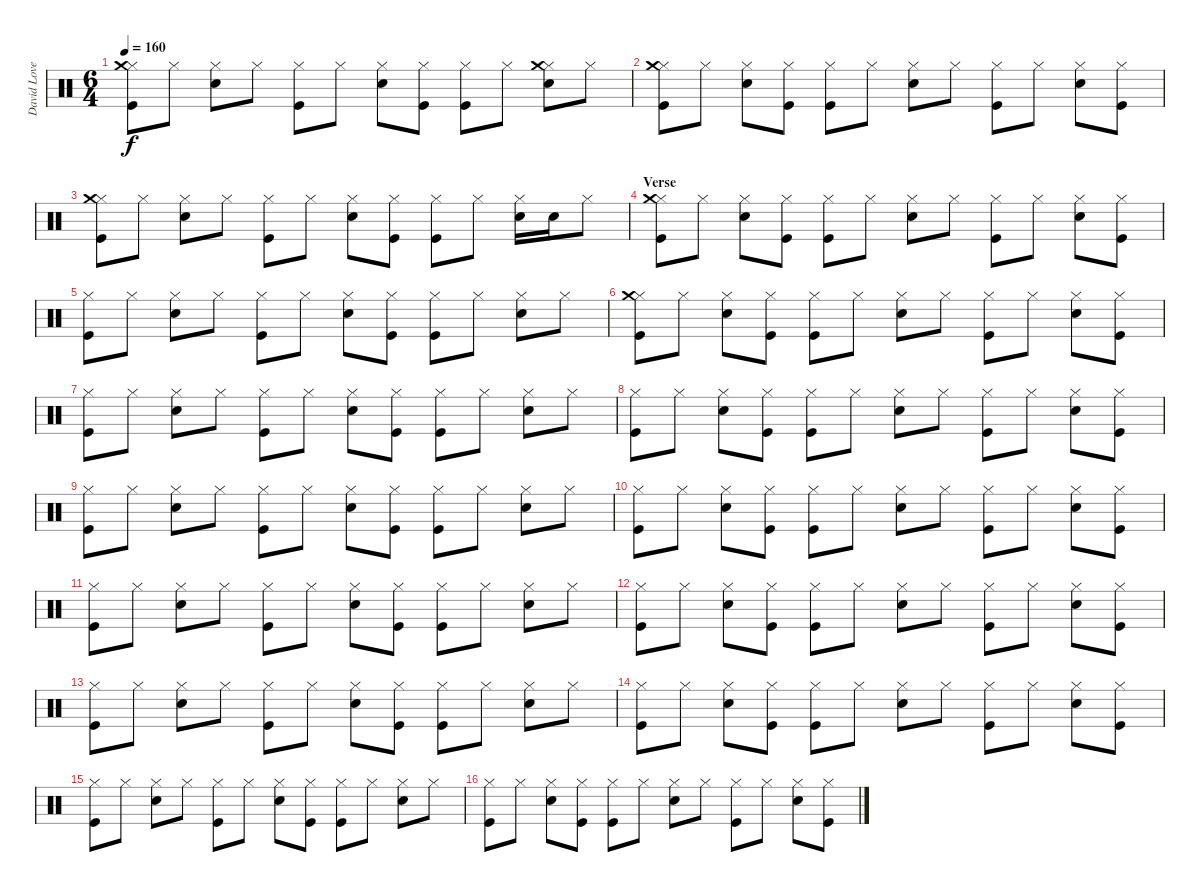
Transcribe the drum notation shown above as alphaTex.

\track ("David Lovering" "David Love") {instrument percussion}
\staff {score}
\articulation defaults
\ts (6 4)
\tempo 160
\clef neutral
\ks c
("Hi-Hat (closed)" "Crash medium (hit)" "Kick (hit)").8{dy f} "Hi-Hat (closed)".8 ("Hi-Hat (closed)" "Snare (hit) 2").8 "Hi-Hat (closed)".8 ("Hi-Hat (closed)" "Kick (hit)").8 "Hi-Hat (closed)".8 ("Hi-Hat (closed)" "Snare (hit) 2").8 ("Hi-Hat (closed)" "Kick (hit)").8 ("Hi-Hat (closed)" "Kick (hit)").8 "Hi-Hat (closed)".8 ("Hi-Hat (closed)" "Crash medium (hit)" "Snare (hit) 2").8 "Hi-Hat (closed)".8 |
("Hi-Hat (closed)" "Crash medium (hit)" "Kick (hit)").8 "Hi-Hat (closed)".8 ("Hi-Hat (closed)" "Snare (hit) 2").8 ("Hi-Hat (closed)" "Kick (hit)").8 ("Hi-Hat (closed)" "Kick (hit)").8 "Hi-Hat (closed)".8 ("Hi-Hat (closed)" "Snare (hit) 2").8 "Hi-Hat (closed)".8 ("Hi-Hat (closed)" "Kick (hit)").8 "Hi-Hat (closed)".8 ("Hi-Hat (closed)" "Snare (hit) 2").8 ("Hi-Hat (closed)" "Kick (hit)").8 |
("Hi-Hat (closed)" "Crash medium (hit)" "Kick (hit)").8 "Hi-Hat (closed)".8 ("Hi-Hat (closed)" "Snare (hit) 2").8 "Hi-Hat (closed)".8 ("Hi-Hat (closed)" "Kick (hit)").8 "Hi-Hat (closed)".8 ("Hi-Hat (closed)" "Snare (hit) 2").8 ("Hi-Hat (closed)" "Kick (hit)").8 ("Hi-Hat (closed)" "Kick (hit)").8 "Hi-Hat (closed)".8 ("Hi-Hat (closed)" "Snare (hit) 2").16 "Snare (hit) 2".16 "Hi-Hat (closed)".8 |
\section ("" "Verse")
("Hi-Hat (closed)" "Crash medium (hit)" "Kick (hit)").8 "Hi-Hat (closed)".8 ("Hi-Hat (closed)" "Snare (hit) 2").8 ("Hi-Hat (closed)" "Kick (hit)").8 ("Hi-Hat (closed)" "Kick (hit)").8 "Hi-Hat (closed)".8 ("Hi-Hat (closed)" "Snare (hit) 2").8 "Hi-Hat (closed)".8 ("Hi-Hat (closed)" "Kick (hit)").8 "Hi-Hat (closed)".8 ("Hi-Hat (closed)" "Snare (hit) 2").8 ("Hi-Hat (closed)" "Kick (hit)").8 |
("Hi-Hat (closed)" "Kick (hit)").8 "Hi-Hat (closed)".8 ("Hi-Hat (closed)" "Snare (hit) 2").8 "Hi-Hat (closed)".8 ("Hi-Hat (closed)" "Kick (hit)").8 "Hi-Hat (closed)".8 ("Hi-Hat (closed)" "Snare (hit) 2").8 ("Hi-Hat (closed)" "Kick (hit)").8 ("Hi-Hat (closed)" "Kick (hit)").8 "Hi-Hat (closed)".8 ("Hi-Hat (closed)" "Snare (hit) 2").8 "Hi-Hat (closed)".8 |
("Hi-Hat (closed)" "Crash medium (hit)" "Kick (hit)").8 "Hi-Hat (closed)".8 ("Hi-Hat (closed)" "Snare (hit) 2").8 ("Hi-Hat (closed)" "Kick (hit)").8 ("Hi-Hat (closed)" "Kick (hit)").8 "Hi-Hat (closed)".8 ("Hi-Hat (closed)" "Snare (hit) 2").8 "Hi-Hat (closed)".8 ("Hi-Hat (closed)" "Kick (hit)").8 "Hi-Hat (closed)".8 ("Hi-Hat (closed)" "Snare (hit) 2").8 ("Hi-Hat (closed)" "Kick (hit)").8 |
("Hi-Hat (closed)" "Kick (hit)").8 "Hi-Hat (closed)".8 ("Hi-Hat (closed)" "Snare (hit) 2").8 "Hi-Hat (closed)".8 ("Hi-Hat (closed)" "Kick (hit)").8 "Hi-Hat (closed)".8 ("Hi-Hat (closed)" "Snare (hit) 2").8 ("Hi-Hat (closed)" "Kick (hit)").8 ("Hi-Hat (closed)" "Kick (hit)").8 "Hi-Hat (closed)".8 ("Hi-Hat (closed)" "Snare (hit) 2").8 "Hi-Hat (closed)".8 |
("Hi-Hat (closed)" "Kick (hit)").8 "Hi-Hat (closed)".8 ("Hi-Hat (closed)" "Snare (hit) 2").8 ("Hi-Hat (closed)" "Kick (hit)").8 ("Hi-Hat (closed)" "Kick (hit)").8 "Hi-Hat (closed)".8 ("Hi-Hat (closed)" "Snare (hit) 2").8 "Hi-Hat (closed)".8 ("Hi-Hat (closed)" "Kick (hit)").8 "Hi-Hat (closed)".8 ("Hi-Hat (closed)" "Snare (hit) 2").8 ("Hi-Hat (closed)" "Kick (hit)").8 |
("Hi-Hat (closed)" "Kick (hit)").8 "Hi-Hat (closed)".8 ("Hi-Hat (closed)" "Snare (hit) 2").8 "Hi-Hat (closed)".8 ("Hi-Hat (closed)" "Kick (hit)").8 "Hi-Hat (closed)".8 ("Hi-Hat (closed)" "Snare (hit) 2").8 ("Hi-Hat (closed)" "Kick (hit)").8 ("Hi-Hat (closed)" "Kick (hit)").8 "Hi-Hat (closed)".8 ("Hi-Hat (closed)" "Snare (hit) 2").8 "Hi-Hat (closed)".8 |
("Hi-Hat (closed)" "Kick (hit)").8 "Hi-Hat (closed)".8 ("Hi-Hat (closed)" "Snare (hit) 2").8 ("Hi-Hat (closed)" "Kick (hit)").8 ("Hi-Hat (closed)" "Kick (hit)").8 "Hi-Hat (closed)".8 ("Hi-Hat (closed)" "Snare (hit) 2").8 "Hi-Hat (closed)".8 ("Hi-Hat (closed)" "Kick (hit)").8 "Hi-Hat (closed)".8 ("Hi-Hat (closed)" "Snare (hit) 2").8 ("Hi-Hat (closed)" "Kick (hit)").8 |
("Hi-Hat (closed)" "Kick (hit)").8 "Hi-Hat (closed)".8 ("Hi-Hat (closed)" "Snare (hit) 2").8 "Hi-Hat (closed)".8 ("Hi-Hat (closed)" "Kick (hit)").8 "Hi-Hat (closed)".8 ("Hi-Hat (closed)" "Snare (hit) 2").8 ("Hi-Hat (closed)" "Kick (hit)").8 ("Hi-Hat (closed)" "Kick (hit)").8 "Hi-Hat (closed)".8 ("Hi-Hat (closed)" "Snare (hit) 2").8 "Hi-Hat (closed)".8 |
("Hi-Hat (closed)" "Kick (hit)").8 "Hi-Hat (closed)".8 ("Hi-Hat (closed)" "Snare (hit) 2").8 ("Hi-Hat (closed)" "Kick (hit)").8 ("Hi-Hat (closed)" "Kick (hit)").8 "Hi-Hat (closed)".8 ("Hi-Hat (closed)" "Snare (hit) 2").8 "Hi-Hat (closed)".8 ("Hi-Hat (closed)" "Kick (hit)").8 "Hi-Hat (closed)".8 ("Hi-Hat (closed)" "Snare (hit) 2").8 ("Hi-Hat (closed)" "Kick (hit)").8 |
\section ("" "")
("Hi-Hat (closed)" "Kick (hit)").8 "Hi-Hat (closed)".8 ("Hi-Hat (closed)" "Snare (hit) 2").8 "Hi-Hat (closed)".8 ("Hi-Hat (closed)" "Kick (hit)").8 "Hi-Hat (closed)".8 ("Hi-Hat (closed)" "Snare (hit) 2").8 ("Hi-Hat (closed)" "Kick (hit)").8 ("Hi-Hat (closed)" "Kick (hit)").8 "Hi-Hat (closed)".8 ("Hi-Hat (closed)" "Snare (hit) 2").8 "Hi-Hat (closed)".8 |
("Hi-Hat (closed)" "Kick (hit)").8 "Hi-Hat (closed)".8 ("Hi-Hat (closed)" "Snare (hit) 2").8 ("Hi-Hat (closed)" "Kick (hit)").8 ("Hi-Hat (closed)" "Kick (hit)").8 "Hi-Hat (closed)".8 ("Hi-Hat (closed)" "Snare (hit) 2").8 "Hi-Hat (closed)".8 ("Hi-Hat (closed)" "Kick (hit)").8 "Hi-Hat (closed)".8 ("Hi-Hat (closed)" "Snare (hit) 2").8 ("Hi-Hat (closed)" "Kick (hit)").8 |
("Hi-Hat (closed)" "Kick (hit)").8 "Hi-Hat (closed)".8 ("Hi-Hat (closed)" "Snare (hit) 2").8 "Hi-Hat (closed)".8 ("Hi-Hat (closed)" "Kick (hit)").8 "Hi-Hat (closed)".8 ("Hi-Hat (closed)" "Snare (hit) 2").8 ("Hi-Hat (closed)" "Kick (hit)").8 ("Hi-Hat (closed)" "Kick (hit)").8 "Hi-Hat (closed)".8 ("Hi-Hat (closed)" "Snare (hit) 2").8 "Hi-Hat (closed)".8 |
("Hi-Hat (closed)" "Kick (hit)").8 "Hi-Hat (closed)".8 ("Hi-Hat (closed)" "Snare (hit) 2").8 ("Hi-Hat (closed)" "Kick (hit)").8 ("Hi-Hat (closed)" "Kick (hit)").8 "Hi-Hat (closed)".8 ("Hi-Hat (closed)" "Snare (hit) 2").8 "Hi-Hat (closed)".8 ("Hi-Hat (closed)" "Kick (hit)").8 "Hi-Hat (closed)".8 ("Hi-Hat (closed)" "Snare (hit) 2").8 ("Hi-Hat (closed)" "Kick (hit)").8
